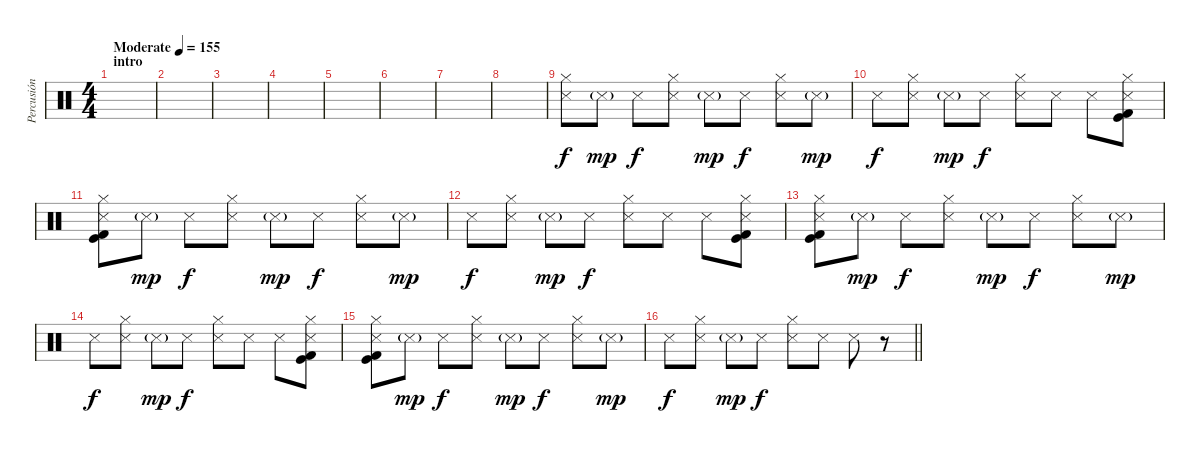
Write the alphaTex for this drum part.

\track ("Percusión" "Percusión") {instrument percussion}
\staff {score}
\articulation defaults
\ts (4 4)
\section ("" "intro")
\tempo (155 "Moderate")
\clef neutral
\ks c
|
|
|
|
|
|
|
|
("Hi-Hat (closed)" "Snare (side stick) 3").8 "Snare (side stick) 3"{g}.8{dy mp} "Snare (side stick) 3".8{dy f} ("Hi-Hat (closed)" "Snare (side stick) 3").8 "Snare (side stick) 3"{g}.8{dy mp} "Snare (side stick) 3".8{dy f} ("Hi-Hat (closed)" "Snare (side stick) 3").8 "Snare (side stick) 3"{g}.8{dy mp} |
"Snare (side stick) 3".8{dy f} ("Hi-Hat (closed)" "Snare (side stick) 3").8 "Snare (side stick) 3"{g}.8{dy mp} "Snare (side stick) 3".8{dy f} ("Hi-Hat (closed)" "Snare (side stick) 3").8 "Snare (side stick) 3".8 "Snare (side stick) 3".8 ("Hi-Hat (closed)" "Snare (side stick) 3" "Kick (hit) 2" "Kick (hit)").8 |
("Hi-Hat (closed)" "Snare (side stick) 3" "Kick (hit) 2" "Kick (hit)").8 "Snare (side stick) 3"{g}.8{dy mp} "Snare (side stick) 3".8{dy f} ("Hi-Hat (closed)" "Snare (side stick) 3").8 "Snare (side stick) 3"{g}.8{dy mp} "Snare (side stick) 3".8{dy f} ("Hi-Hat (closed)" "Snare (side stick) 3").8 "Snare (side stick) 3"{g}.8{dy mp} |
"Snare (side stick) 3".8{dy f} ("Hi-Hat (closed)" "Snare (side stick) 3").8 "Snare (side stick) 3"{g}.8{dy mp} "Snare (side stick) 3".8{dy f} ("Hi-Hat (closed)" "Snare (side stick) 3").8 "Snare (side stick) 3".8 "Snare (side stick) 3".8 ("Hi-Hat (closed)" "Snare (side stick) 3" "Kick (hit) 2" "Kick (hit)").8 |
("Hi-Hat (closed)" "Snare (side stick) 3" "Kick (hit) 2" "Kick (hit)").8 "Snare (side stick) 3"{g}.8{dy mp} "Snare (side stick) 3".8{dy f} ("Hi-Hat (closed)" "Snare (side stick) 3").8 "Snare (side stick) 3"{g}.8{dy mp} "Snare (side stick) 3".8{dy f} ("Hi-Hat (closed)" "Snare (side stick) 3").8 "Snare (side stick) 3"{g}.8{dy mp} |
"Snare (side stick) 3".8{dy f} ("Hi-Hat (closed)" "Snare (side stick) 3").8 "Snare (side stick) 3"{g}.8{dy mp} "Snare (side stick) 3".8{dy f} ("Hi-Hat (closed)" "Snare (side stick) 3").8 "Snare (side stick) 3".8 "Snare (side stick) 3".8 ("Hi-Hat (closed)" "Snare (side stick) 3" "Kick (hit) 2" "Kick (hit)").8 |
("Hi-Hat (closed)" "Snare (side stick) 3" "Kick (hit) 2" "Kick (hit)").8 "Snare (side stick) 3"{g}.8{dy mp} "Snare (side stick) 3".8{dy f} ("Hi-Hat (closed)" "Snare (side stick) 3").8 "Snare (side stick) 3"{g}.8{dy mp} "Snare (side stick) 3".8{dy f} ("Hi-Hat (closed)" "Snare (side stick) 3").8 "Snare (side stick) 3"{g}.8{dy mp} |
\barLineRight lightlight "Snare (side stick) 3".8{dy f}
("Hi-Hat (closed)" "Snare (side stick) 3").8 "Snare (side stick) 3"{g}.8{dy mp} "Snare (side stick) 3".8{dy f} ("Hi-Hat (closed)" "Snare (side stick) 3").8 "Snare (side stick) 3".8 "Snare (side stick) 3".8 r.8
